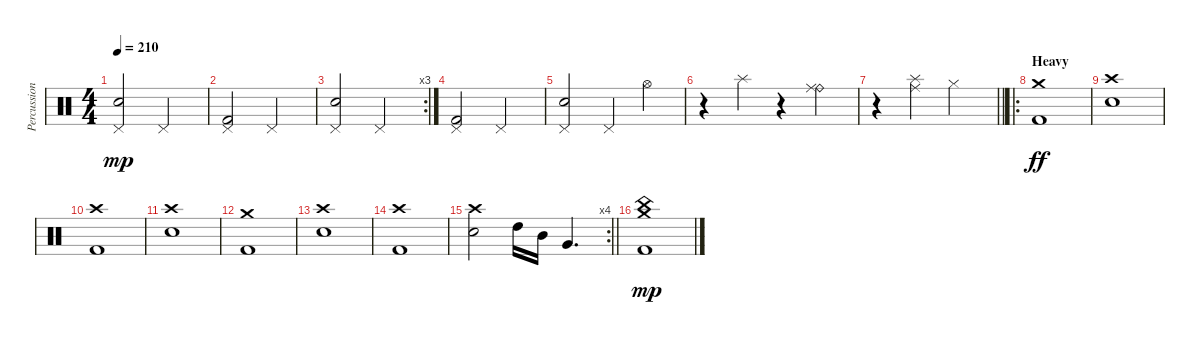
\track ("Percussion" "Percussion") {instrument percussion}
\staff {score}
\articulation defaults
\ts (4 4)
\tempo 210
\clef neutral
\ks c
("Pedal Hi-Hat (hit)" "Electric Snare (hit)").2{dy mp} "Pedal Hi-Hat (hit)".2 |
("Pedal Hi-Hat (hit)" "Kick (hit) 2").2 "Pedal Hi-Hat (hit)".2 |
\rc 3
("Pedal Hi-Hat (hit)" "Electric Snare (hit)").2 "Pedal Hi-Hat (hit)".2 |
("Pedal Hi-Hat (hit)" "Kick (hit) 2").2 "Pedal Hi-Hat (hit)".2 |
("Pedal Hi-Hat (hit)" "Electric Snare (hit)").2 "Pedal Hi-Hat (hit)".4 "Hi-Hat (open)".4 |
r.4 "Splash (hit)".4 r.4 ("Ride (bell)" "Ride (middle)").4 |
\barLineRight lightlight
r.4 ("Ride (middle)" "Splash (hit)").4 "Hi-Hat (closed)".2 |
\ro
\section ("" "Heavy")
("Crash medium (hit)" "Kick (hit) 2").1{dy ff} |
("Crash high (hit)" "Electric Snare (hit)").1 |
("Crash high (hit)" "Kick (hit) 2").1 |
("Crash high (hit)" "Electric Snare (hit)").1 |
("Crash medium (hit)" "Kick (hit) 2").1 |
("Crash high (hit)" "Electric Snare (hit)").1 |
("Crash high (hit)" "Kick (hit) 2").1 |
\rc 4
\barLineRight lightlight
("Crash high (hit)" "Electric Snare (hit)").2 "High Tom (hit)".16 "Mid Tom (hit)".16 "Very Low Tom (hit)".4{d} |
("China (hit)" "Crash medium (hit)" "Kick (hit) 2").1{dy mp}
